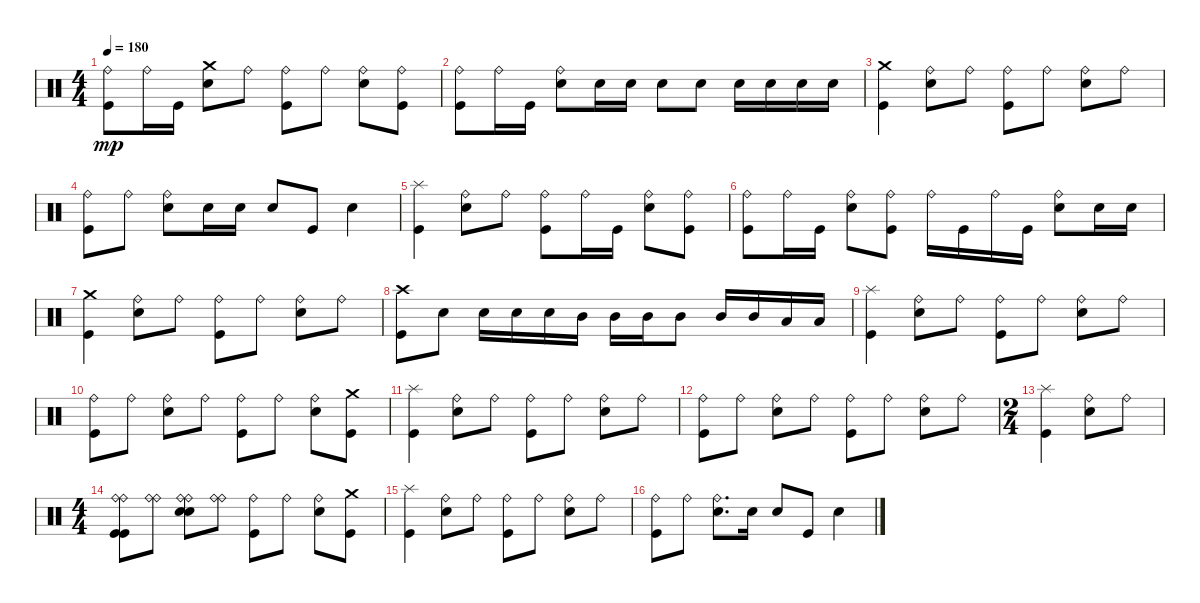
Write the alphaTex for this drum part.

\track "" {instrument percussion}
\staff {score}
\articulation defaults
\ts (4 4)
\tempo 180
\clef neutral
\ks c
("Kick (hit)" "Ride (bell)").8{dy mp} "Ride (bell)".16 "Kick (hit)".16 ("Electric Snare (hit)" "Crash medium (hit)").8 "Ride (bell)".8 ("Kick (hit)" "Ride (bell)").8 "Ride (bell)".8 ("Electric Snare (hit)" "Ride (bell)").8 ("Kick (hit)" "Ride (bell)").8 |
("Kick (hit)" "Ride (bell)").8 "Ride (bell)".16 "Kick (hit)".16 ("Electric Snare (hit)" "Ride (bell)").8 "Electric Snare (hit)".16 "Electric Snare (hit)".16 "Electric Snare (hit)".8 "Electric Snare (hit)".8 "Electric Snare (hit)".16 "Electric Snare (hit)".16 "Electric Snare (hit)".16 "Electric Snare (hit)".16 |
("Kick (hit)" "Crash medium (hit)").4 ("Electric Snare (hit)" "Ride (bell)").8 "Ride (bell)".8 ("Kick (hit)" "Ride (bell)").8 "Ride (bell)".8 ("Electric Snare (hit)" "Ride (bell)").8 "Ride (bell)".8 |
("Kick (hit)" "Ride (bell)").8 "Ride (bell)".8 ("Electric Snare (hit)" "Ride (bell)").8 "Electric Snare (hit)".16 "Electric Snare (hit)".16 "Electric Snare (hit)".8 "Kick (hit)".8 "Electric Snare (hit)".4 |
("Kick (hit)" "Splash (hit)").4 ("Electric Snare (hit)" "Ride (bell)").8 "Ride (bell)".8 ("Kick (hit)" "Ride (bell)").8 "Ride (bell)".16 "Kick (hit)".16 ("Electric Snare (hit)" "Ride (bell)").8 ("Kick (hit)" "Ride (bell)").8 |
("Kick (hit)" "Ride (bell)").8 "Ride (bell)".16 "Kick (hit)".16 ("Electric Snare (hit)" "Ride (bell)").8 ("Kick (hit)" "Ride (bell)").8 "Ride (bell)".16 "Kick (hit)".16 "Ride (bell)".16 "Kick (hit)".16 ("Electric Snare (hit)" "Ride (bell)").8 "Electric Snare (hit)".16 "Electric Snare (hit)".16 |
("Kick (hit)" "Crash medium (hit)").4 ("Electric Snare (hit)" "Ride (bell)").8 "Ride (bell)".8 ("Kick (hit)" "Ride (bell)").8 "Ride (bell)".8 ("Electric Snare (hit)" "Ride (bell)").8 "Ride (bell)".8 |
("Kick (hit)" "Crash high (hit)").8 "Electric Snare (hit)".8 "Electric Snare (hit)".16 "Electric Snare (hit)".16 "Electric Snare (hit)".16 "Mid Tom (hit)".16 "Mid Tom (hit)".16 "Mid Tom (hit)".16 "Mid Tom (hit)".8 "Mid Tom (hit)".16 "Mid Tom (hit)".16 "Low Tom (hit)".16 "Low Tom (hit)".16 |
("Kick (hit)" "Splash (hit)").4 ("Electric Snare (hit)" "Ride (bell)").8 "Ride (bell)".8 ("Kick (hit)" "Ride (bell)").8 "Ride (bell)".8 ("Electric Snare (hit)" "Ride (bell)").8 "Ride (bell)".8 |
("Kick (hit)" "Ride (bell)").8 "Ride (bell)".8 ("Electric Snare (hit)" "Ride (bell)").8 "Ride (bell)".8 ("Kick (hit)" "Ride (bell)").8 "Ride (bell)".8 ("Electric Snare (hit)" "Ride (bell)").8 ("Kick (hit)" "Crash medium (hit)").8 |
("Kick (hit)" "Splash (hit)").4 ("Electric Snare (hit)" "Ride (bell)").8 "Ride (bell)".8 ("Kick (hit)" "Ride (bell)").8 "Ride (bell)".8 ("Electric Snare (hit)" "Ride (bell)").8 "Ride (bell)".8 |
("Kick (hit)" "Ride (bell)").8 "Ride (bell)".8 ("Electric Snare (hit)" "Ride (bell)").8 "Ride (bell)".8 ("Kick (hit)" "Ride (bell)").8 "Ride (bell)".8 ("Electric Snare (hit)" "Ride (bell)").8 "Ride (bell)".8 |
\ts (2 4)
("Kick (hit)" "Splash (hit)").4 ("Electric Snare (hit)" "Ride (bell)").8 "Ride (bell)".8 |
\ts (4 4)
("Kick (hit)" "Ride (bell)" "Kick (hit)" "Ride (bell)").8 ("Ride (bell)" "Ride (bell)").8 ("Ride (bell)" "Electric Snare (hit)" "Ride (bell)" "Electric Snare (hit)").8 ("Ride (bell)" "Ride (bell)").8 ("Kick (hit)" "Ride (bell)").8 "Ride (bell)".8 ("Electric Snare (hit)" "Ride (bell)").8 ("Kick (hit)" "Crash medium (hit)").8 |
("Kick (hit)" "Splash (hit)").4 ("Electric Snare (hit)" "Ride (bell)").8 "Ride (bell)".8 ("Kick (hit)" "Ride (bell)").8 "Ride (bell)".8 ("Electric Snare (hit)" "Ride (bell)").8 "Ride (bell)".8 |
("Kick (hit)" "Ride (bell)").8 "Ride (bell)".8 ("Electric Snare (hit)" "Ride (bell)").8{d} "Electric Snare (hit)".16 "Electric Snare (hit)".8 "Kick (hit)".8 "Electric Snare (hit)".4
